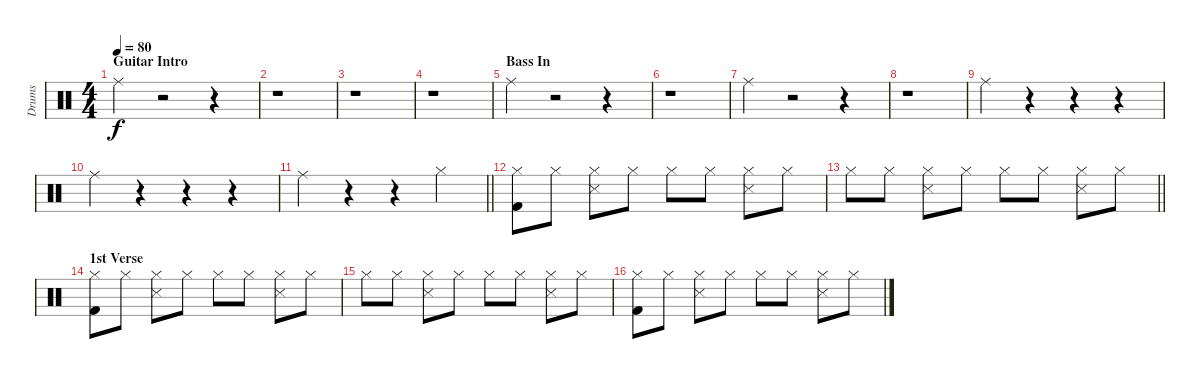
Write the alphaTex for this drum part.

\track ("Drums" "Drums") {instrument percussion}
\staff {score}
\articulation defaults
\ts (4 4)
\section ("" "Guitar Intro")
\tempo 80
\clef neutral
\ks c "Ride (middle)".4{dy f}
r.2 r.4 |
r.1 |
r.1 |
r.1 |
\section ("" "Bass In")
"Ride (middle)".4 r.2 r.4 |
r.1 |
"Ride (middle)".4 r.2 r.4 |
r.1 |
"Ride (middle)".4 r.4 r.4 r.4 |
"Ride (middle)".4 r.4 r.4 r.4 |
\barLineRight lightlight "Ride (middle)".4
r.4 r.4 "Hi-Hat (closed)".4 |
("Hi-Hat (closed)" "Kick (hit) 2").8 "Hi-Hat (closed)".8 ("Hi-Hat (closed)" "Snare (side stick) 3").8 "Hi-Hat (closed)".8 "Hi-Hat (closed)".8 "Hi-Hat (closed)".8 ("Hi-Hat (closed)" "Snare (side stick) 3").8 "Hi-Hat (closed)".8 |
\barLineRight lightlight "Hi-Hat (closed)".8 "Hi-Hat (closed)".8
("Hi-Hat (closed)" "Snare (side stick) 3").8 "Hi-Hat (closed)".8 "Hi-Hat (closed)".8 "Hi-Hat (closed)".8 ("Hi-Hat (closed)" "Snare (side stick) 3").8 "Hi-Hat (closed)".8 |
\section ("" "1st Verse")
("Hi-Hat (closed)" "Kick (hit) 2").8 "Hi-Hat (closed)".8 ("Hi-Hat (closed)" "Snare (side stick) 3").8 "Hi-Hat (closed)".8 "Hi-Hat (closed)".8 "Hi-Hat (closed)".8 ("Hi-Hat (closed)" "Snare (side stick) 3").8 "Hi-Hat (closed)".8 |
"Hi-Hat (closed)".8 "Hi-Hat (closed)".8 ("Hi-Hat (closed)" "Snare (side stick) 3").8 "Hi-Hat (closed)".8 "Hi-Hat (closed)".8 "Hi-Hat (closed)".8 ("Hi-Hat (closed)" "Snare (side stick) 3").8 "Hi-Hat (closed)".8 |
("Hi-Hat (closed)" "Kick (hit) 2").8 "Hi-Hat (closed)".8 ("Hi-Hat (closed)" "Snare (side stick) 3").8 "Hi-Hat (closed)".8 "Hi-Hat (closed)".8 "Hi-Hat (closed)".8 ("Hi-Hat (closed)" "Snare (side stick) 3").8 "Hi-Hat (closed)".8
